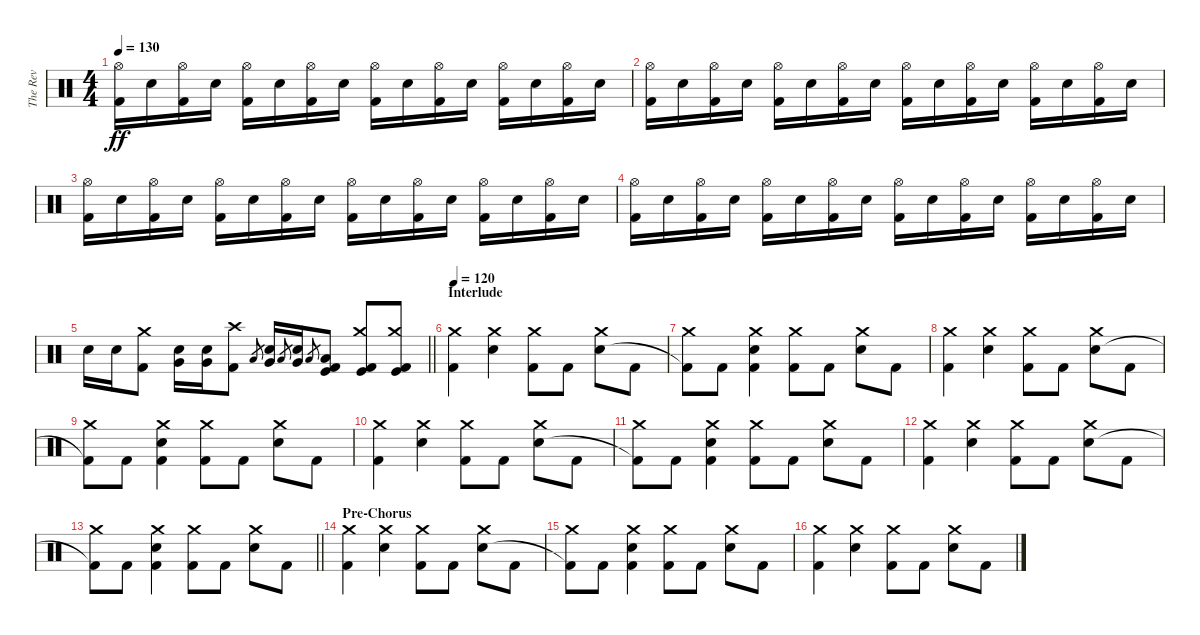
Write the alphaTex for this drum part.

\track ("The Rev" "The Rev") {instrument percussion}
\staff {score}
\articulation defaults
\ts (4 4)
\tempo 130
\clef neutral
\ks c
("Hi-Hat (open)" "Kick (hit) 2").16{dy ff} "Electric Snare (hit)".16 ("Hi-Hat (open)" "Kick (hit) 2").16 "Electric Snare (hit)".16 ("Hi-Hat (open)" "Kick (hit) 2").16 "Electric Snare (hit)".16 ("Hi-Hat (open)" "Kick (hit) 2").16 "Electric Snare (hit)".16 ("Hi-Hat (open)" "Kick (hit) 2").16 "Electric Snare (hit)".16 ("Hi-Hat (open)" "Kick (hit) 2").16 "Electric Snare (hit)".16 ("Hi-Hat (open)" "Kick (hit) 2").16 "Electric Snare (hit)".16 ("Hi-Hat (open)" "Kick (hit) 2").16 "Electric Snare (hit)".16 |
("Hi-Hat (open)" "Kick (hit) 2").16 "Electric Snare (hit)".16 ("Hi-Hat (open)" "Kick (hit) 2").16 "Electric Snare (hit)".16 ("Hi-Hat (open)" "Kick (hit) 2").16 "Electric Snare (hit)".16 ("Hi-Hat (open)" "Kick (hit) 2").16 "Electric Snare (hit)".16 ("Hi-Hat (open)" "Kick (hit) 2").16 "Electric Snare (hit)".16 ("Hi-Hat (open)" "Kick (hit) 2").16 "Electric Snare (hit)".16 ("Hi-Hat (open)" "Kick (hit) 2").16 "Electric Snare (hit)".16 ("Hi-Hat (open)" "Kick (hit) 2").16 "Electric Snare (hit)".16 |
("Hi-Hat (open)" "Kick (hit) 2").16 "Electric Snare (hit)".16 ("Hi-Hat (open)" "Kick (hit) 2").16 "Electric Snare (hit)".16 ("Hi-Hat (open)" "Kick (hit) 2").16 "Electric Snare (hit)".16 ("Hi-Hat (open)" "Kick (hit) 2").16 "Electric Snare (hit)".16 ("Hi-Hat (open)" "Kick (hit) 2").16 "Electric Snare (hit)".16 ("Hi-Hat (open)" "Kick (hit) 2").16 "Electric Snare (hit)".16 ("Hi-Hat (open)" "Kick (hit) 2").16 "Electric Snare (hit)".16 ("Hi-Hat (open)" "Kick (hit) 2").16 "Electric Snare (hit)".16 |
("Hi-Hat (open)" "Kick (hit) 2").16 "Electric Snare (hit)".16 ("Hi-Hat (open)" "Kick (hit) 2").16 "Electric Snare (hit)".16 ("Hi-Hat (open)" "Kick (hit) 2").16 "Electric Snare (hit)".16 ("Hi-Hat (open)" "Kick (hit) 2").16 "Electric Snare (hit)".16 ("Hi-Hat (open)" "Kick (hit) 2").16 "Electric Snare (hit)".16 ("Hi-Hat (open)" "Kick (hit) 2").16 "Electric Snare (hit)".16 ("Hi-Hat (open)" "Kick (hit) 2").16 "Electric Snare (hit)".16 ("Hi-Hat (open)" "Kick (hit) 2").16 "Electric Snare (hit)".16 |
\barLineRight lightlight "Electric Snare (hit)".16 "Electric Snare (hit)".16
("Crash medium (hit)" "Kick (hit) 2").8 ("Very Low Tom (hit)" "Electric Snare (hit)").16 ("Very Low Tom (hit)" "Electric Snare (hit)").16 ("Crash high (hit)" "Kick (hit) 2").8 "Low Floor Tom (hit)".8{gr} ("Very Low Tom (hit)" "Electric Snare (hit)").16 "Low Floor Tom (hit)".8{gr} ("Very Low Tom (hit)" "Electric Snare (hit)").16 "Low Tom (hit)".8{gr} ("Low Tom (hit)" "Kick (hit)" "Kick (hit) 2").8 ("Crash medium (hit)" "Kick (hit)" "Kick (hit) 2").8 ("Crash medium (hit)" "Kick (hit)" "Kick (hit) 2").8 |
\section ("" "Interlude")
\tempo 120
("Crash medium (hit)" "Kick (hit) 2").4 ("Crash medium (hit)" "Electric Snare (hit)").4 ("Crash medium (hit)" "Kick (hit) 2").8 "Kick (hit) 2".8 ("Crash medium (hit)" "Electric Snare (hit)").8 "Kick (hit) 2".8 |
("Crash medium (hit)" "Kick (hit) 2"{t}).8 "Kick (hit) 2".8 ("Crash medium (hit)" "Electric Snare (hit)" "Kick (hit) 2").4 ("Crash medium (hit)" "Kick (hit) 2").8 "Kick (hit) 2".8 ("Crash medium (hit)" "Electric Snare (hit)").8 "Kick (hit) 2".8 |
("Crash medium (hit)" "Kick (hit) 2").4 ("Crash medium (hit)" "Electric Snare (hit)").4 ("Crash medium (hit)" "Kick (hit) 2").8 "Kick (hit) 2".8 ("Crash medium (hit)" "Electric Snare (hit)").8 "Kick (hit) 2".8 |
("Crash medium (hit)" "Kick (hit) 2"{t}).8 "Kick (hit) 2".8 ("Crash medium (hit)" "Electric Snare (hit)" "Kick (hit) 2").4 ("Crash medium (hit)" "Kick (hit) 2").8 "Kick (hit) 2".8 ("Crash medium (hit)" "Electric Snare (hit)").8 "Kick (hit) 2".8 |
("Crash medium (hit)" "Kick (hit) 2").4 ("Crash medium (hit)" "Electric Snare (hit)").4 ("Crash medium (hit)" "Kick (hit) 2").8 "Kick (hit) 2".8 ("Crash medium (hit)" "Electric Snare (hit)").8 "Kick (hit) 2".8 |
("Crash medium (hit)" "Kick (hit) 2"{t}).8 "Kick (hit) 2".8 ("Crash medium (hit)" "Electric Snare (hit)" "Kick (hit) 2").4 ("Crash medium (hit)" "Kick (hit) 2").8 "Kick (hit) 2".8 ("Crash medium (hit)" "Electric Snare (hit)").8 "Kick (hit) 2".8 |
("Crash medium (hit)" "Kick (hit) 2").4 ("Crash medium (hit)" "Electric Snare (hit)").4 ("Crash medium (hit)" "Kick (hit) 2").8 "Kick (hit) 2".8 ("Crash medium (hit)" "Electric Snare (hit)").8 "Kick (hit) 2".8 |
\barLineRight lightlight
("Crash medium (hit)" "Kick (hit) 2"{t}).8 "Kick (hit) 2".8 ("Crash medium (hit)" "Electric Snare (hit)" "Kick (hit) 2").4 ("Crash medium (hit)" "Kick (hit) 2").8 "Kick (hit) 2".8 ("Crash medium (hit)" "Electric Snare (hit)").8 "Kick (hit) 2".8 |
\section ("" "Pre-Chorus")
("Crash medium (hit)" "Kick (hit) 2").4 ("Crash medium (hit)" "Electric Snare (hit)").4 ("Crash medium (hit)" "Kick (hit) 2").8 "Kick (hit) 2".8 ("Crash medium (hit)" "Electric Snare (hit)").8 "Kick (hit) 2".8 |
("Crash medium (hit)" "Kick (hit) 2"{t}).8 "Kick (hit) 2".8 ("Crash medium (hit)" "Electric Snare (hit)" "Kick (hit) 2").4 ("Crash medium (hit)" "Kick (hit) 2").8 "Kick (hit) 2".8 ("Crash medium (hit)" "Electric Snare (hit)").8 "Kick (hit) 2".8 |
("Crash medium (hit)" "Kick (hit) 2").4 ("Crash medium (hit)" "Electric Snare (hit)").4 ("Crash medium (hit)" "Kick (hit) 2").8 "Kick (hit) 2".8 ("Crash medium (hit)" "Electric Snare (hit)").8 "Kick (hit) 2".8
